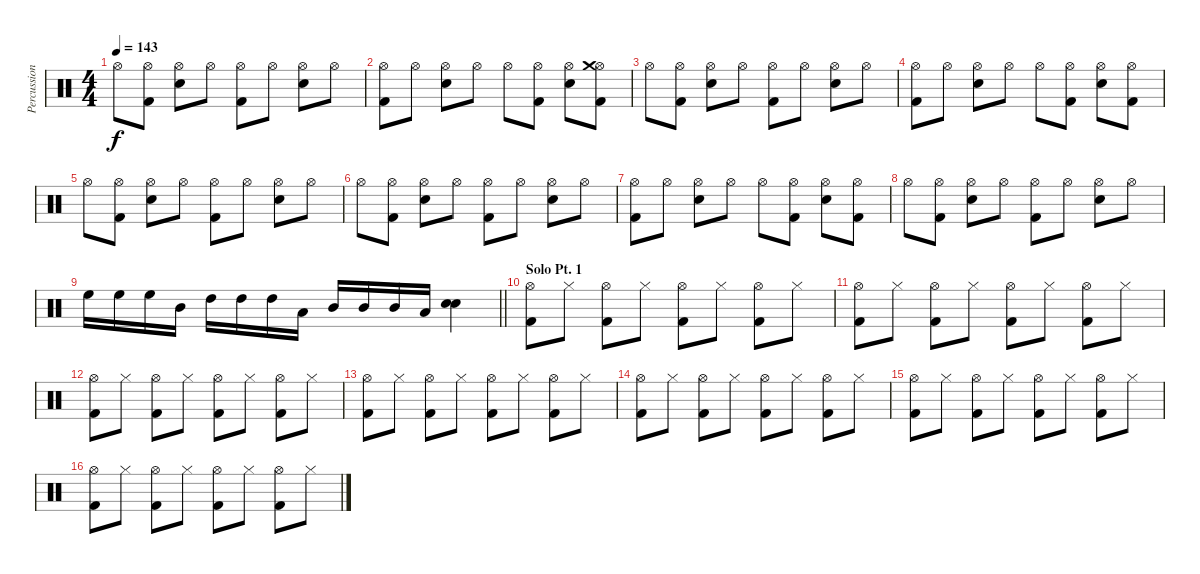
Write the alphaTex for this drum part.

\track ("Percussion" "Percussion") {instrument percussion}
\staff {score}
\articulation defaults
\ts (4 4)
\tempo 143
\clef neutral
\ks c "Hi-Hat (open)".8{dy f}
("Hi-Hat (open)" "Kick (hit) 2").8 ("Hi-Hat (open)" "Snare (hit) 2").8 "Hi-Hat (open)".8 ("Hi-Hat (open)" "Kick (hit) 2").8 "Hi-Hat (open)".8 ("Hi-Hat (open)" "Snare (hit) 2").8 "Hi-Hat (open)".8 |
("Hi-Hat (open)" "Kick (hit) 2").8 "Hi-Hat (open)".8 ("Hi-Hat (open)" "Snare (hit) 2").8 "Hi-Hat (open)".8 "Hi-Hat (open)".8 ("Hi-Hat (open)" "Kick (hit) 2").8 ("Hi-Hat (open)" "Snare (hit) 2").8 ("Hi-Hat (open)" "Crash medium (hit)" "Kick (hit) 2").8 |
"Hi-Hat (open)".8 ("Hi-Hat (open)" "Kick (hit) 2").8 ("Hi-Hat (open)" "Snare (hit) 2").8 "Hi-Hat (open)".8 ("Hi-Hat (open)" "Kick (hit) 2").8 "Hi-Hat (open)".8 ("Hi-Hat (open)" "Snare (hit) 2").8 "Hi-Hat (open)".8 |
("Hi-Hat (open)" "Kick (hit) 2").8 "Hi-Hat (open)".8 ("Hi-Hat (open)" "Snare (hit) 2").8 "Hi-Hat (open)".8 "Hi-Hat (open)".8 ("Hi-Hat (open)" "Kick (hit) 2").8 ("Hi-Hat (open)" "Snare (hit) 2").8 ("Hi-Hat (open)" "Kick (hit) 2").8 |
"Hi-Hat (open)".8 ("Hi-Hat (open)" "Kick (hit) 2").8 ("Hi-Hat (open)" "Snare (hit) 2").8 "Hi-Hat (open)".8 ("Hi-Hat (open)" "Kick (hit) 2").8 "Hi-Hat (open)".8 ("Hi-Hat (open)" "Snare (hit) 2").8 "Hi-Hat (open)".8 |
"Hi-Hat (open)".8 ("Hi-Hat (open)" "Kick (hit) 2").8 ("Hi-Hat (open)" "Snare (hit) 2").8 "Hi-Hat (open)".8 ("Hi-Hat (open)" "Kick (hit) 2").8 "Hi-Hat (open)".8 ("Hi-Hat (open)" "Snare (hit) 2").8 "Hi-Hat (open)".8 |
("Hi-Hat (open)" "Kick (hit) 2").8 "Hi-Hat (open)".8 ("Hi-Hat (open)" "Snare (hit) 2").8 "Hi-Hat (open)".8 "Hi-Hat (open)".8 ("Hi-Hat (open)" "Kick (hit) 2").8 ("Hi-Hat (open)" "Snare (hit) 2").8 ("Hi-Hat (open)" "Kick (hit) 2").8 |
"Hi-Hat (open)".8 ("Hi-Hat (open)" "Kick (hit) 2").8 ("Hi-Hat (open)" "Snare (hit) 2").8 "Hi-Hat (open)".8 ("Hi-Hat (open)" "Kick (hit) 2").8 "Hi-Hat (open)".8 ("Hi-Hat (open)" "Snare (hit) 2").8 "Hi-Hat (open)".8 |
\barLineRight lightlight "High Floor Tom (hit)".16 "High Floor Tom (hit)".16 "High Floor Tom (hit)".16 "Mid Tom (hit)".16 "High Tom (hit)".16 "High Tom (hit)".16 "High Tom (hit)".16 "Low Tom (hit)".16 "Mid Tom (hit)".16 "Mid Tom (hit)".16 "Mid Tom (hit)".16 "Low Tom (hit)".16
("Electric Snare (hit)" "Snare (hit) 2").4 |
\section ("" "Solo Pt. 1")
("Hi-Hat (open)" "Kick (hit) 2").8 "Hi-Hat (closed)".8 ("Hi-Hat (open)" "Kick (hit) 2").8 "Hi-Hat (closed)".8 ("Hi-Hat (open)" "Kick (hit) 2").8 "Hi-Hat (closed)".8 ("Hi-Hat (open)" "Kick (hit) 2").8 "Hi-Hat (closed)".8 |
("Hi-Hat (open)" "Kick (hit) 2").8 "Hi-Hat (closed)".8 ("Hi-Hat (open)" "Kick (hit) 2").8 "Hi-Hat (closed)".8 ("Hi-Hat (open)" "Kick (hit) 2").8 "Hi-Hat (closed)".8 ("Hi-Hat (open)" "Kick (hit) 2").8 "Hi-Hat (closed)".8 |
("Hi-Hat (open)" "Kick (hit) 2").8 "Hi-Hat (closed)".8 ("Hi-Hat (open)" "Kick (hit) 2").8 "Hi-Hat (closed)".8 ("Hi-Hat (open)" "Kick (hit) 2").8 "Hi-Hat (closed)".8 ("Hi-Hat (open)" "Kick (hit) 2").8 "Hi-Hat (closed)".8 |
("Hi-Hat (open)" "Kick (hit) 2").8 "Hi-Hat (closed)".8 ("Hi-Hat (open)" "Kick (hit) 2").8 "Hi-Hat (closed)".8 ("Hi-Hat (open)" "Kick (hit) 2").8 "Hi-Hat (closed)".8 ("Hi-Hat (open)" "Kick (hit) 2").8 "Hi-Hat (closed)".8 |
("Hi-Hat (open)" "Kick (hit) 2").8 "Hi-Hat (closed)".8 ("Hi-Hat (open)" "Kick (hit) 2").8 "Hi-Hat (closed)".8 ("Hi-Hat (open)" "Kick (hit) 2").8 "Hi-Hat (closed)".8 ("Hi-Hat (open)" "Kick (hit) 2").8 "Hi-Hat (closed)".8 |
("Hi-Hat (open)" "Kick (hit) 2").8 "Hi-Hat (closed)".8 ("Hi-Hat (open)" "Kick (hit) 2").8 "Hi-Hat (closed)".8 ("Hi-Hat (open)" "Kick (hit) 2").8 "Hi-Hat (closed)".8 ("Hi-Hat (open)" "Kick (hit) 2").8 "Hi-Hat (closed)".8 |
("Hi-Hat (open)" "Kick (hit) 2").8 "Hi-Hat (closed)".8 ("Hi-Hat (open)" "Kick (hit) 2").8 "Hi-Hat (closed)".8 ("Hi-Hat (open)" "Kick (hit) 2").8 "Hi-Hat (closed)".8 ("Hi-Hat (open)" "Kick (hit) 2").8 "Hi-Hat (closed)".8
